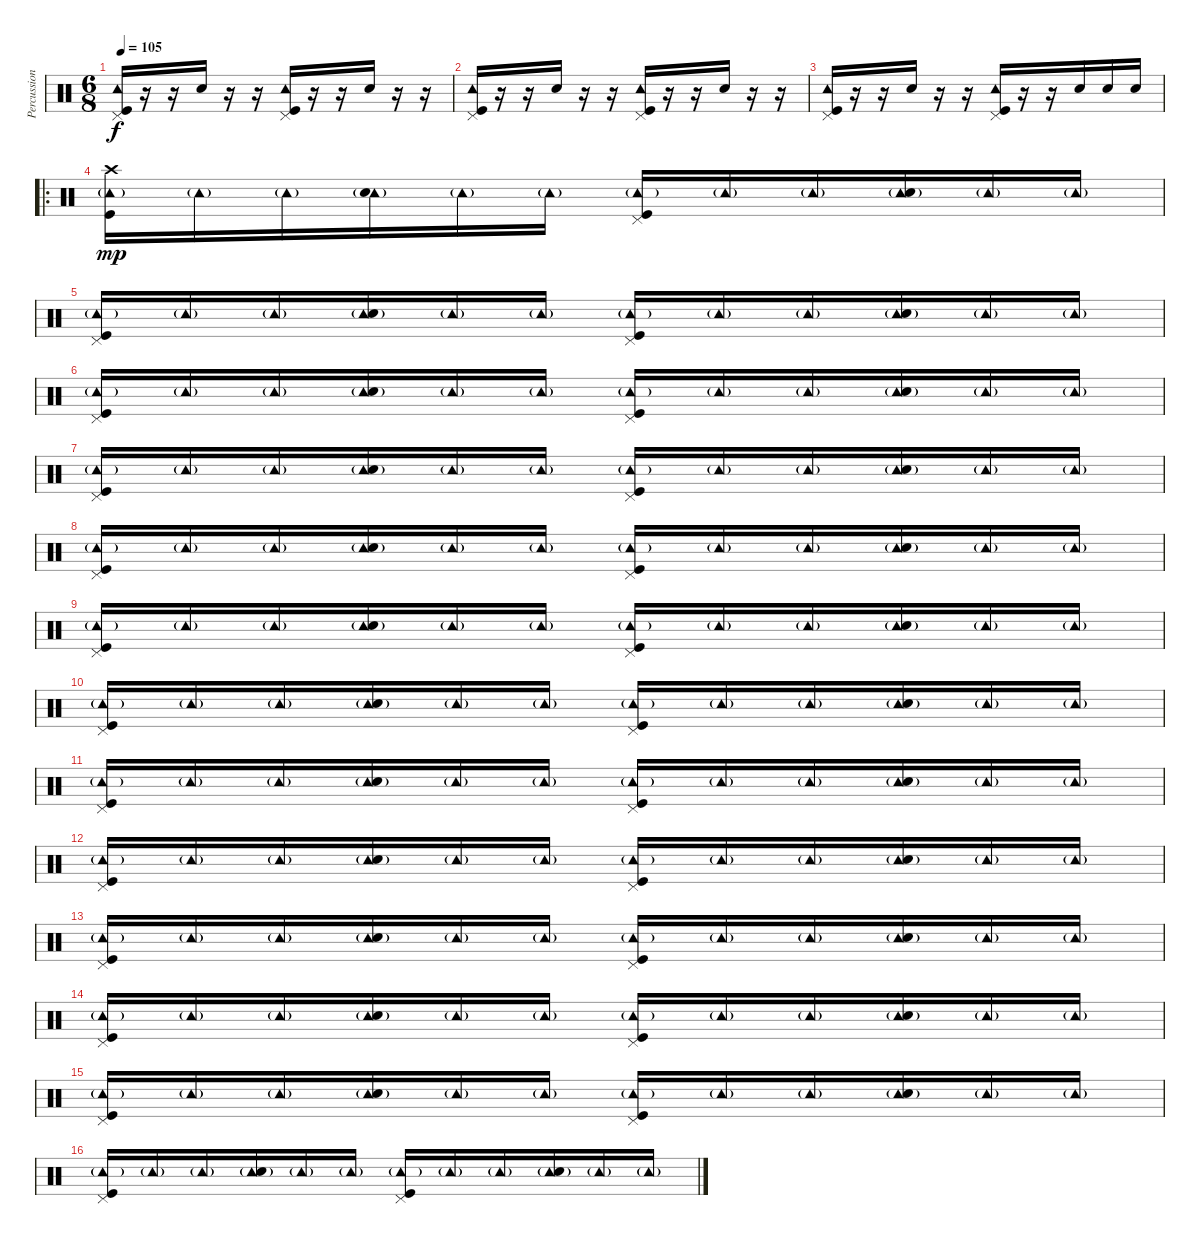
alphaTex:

\track ("Percussions" "Percussion") {instrument percussion}
\staff {score}
\articulation defaults
\ts (6 8)
\tempo 105
\clef neutral
\ks c
("Pedal Hi-Hat (hit)" "Tambourine (hit)" "Kick (hit)").16{dy f} r.16 r.16 "Snare (hit) 2".16 r.16 r.16 ("Pedal Hi-Hat (hit)" "Tambourine (hit)" "Kick (hit)").16 r.16 r.16 "Snare (hit) 2".16 r.16 r.16 |
("Pedal Hi-Hat (hit)" "Tambourine (hit)" "Kick (hit)").16 r.16 r.16 "Snare (hit) 2".16 r.16 r.16 ("Pedal Hi-Hat (hit)" "Tambourine (hit)" "Kick (hit)").16 r.16 r.16 "Snare (hit) 2".16 r.16 r.16 |
("Pedal Hi-Hat (hit)" "Tambourine (hit)" "Kick (hit)").16 r.16 r.16 "Snare (hit) 2".16 r.16 r.16 ("Pedal Hi-Hat (hit)" "Tambourine (hit)" "Kick (hit)").16 r.16 r.16 "Snare (hit) 2".16 "Snare (hit) 2".16 "Snare (hit) 2".16 |
\ro
("Crash high (hit)" "Tambourine (hit)"{g} "Kick (hit)").16{dy mp} "Tambourine (hit)"{g}.16 "Tambourine (hit)"{g}.16 ("Tambourine (hit)"{g} "Snare (hit) 2").16 "Tambourine (hit)"{g}.16 "Tambourine (hit)"{g}.16 ("Pedal Hi-Hat (hit)" "Tambourine (hit)"{g} "Kick (hit)").16 "Tambourine (hit)"{g}.16 "Tambourine (hit)"{g}.16 ("Tambourine (hit)"{g} "Snare (hit) 2").16 "Tambourine (hit)"{g}.16 "Tambourine (hit)"{g}.16 |
("Pedal Hi-Hat (hit)" "Tambourine (hit)"{g} "Kick (hit)").16 "Tambourine (hit)"{g}.16 "Tambourine (hit)"{g}.16 ("Tambourine (hit)"{g} "Snare (hit) 2").16 "Tambourine (hit)"{g}.16 "Tambourine (hit)"{g}.16 ("Pedal Hi-Hat (hit)" "Tambourine (hit)"{g} "Kick (hit)").16 "Tambourine (hit)"{g}.16 "Tambourine (hit)"{g}.16 ("Tambourine (hit)"{g} "Snare (hit) 2").16 "Tambourine (hit)"{g}.16 "Tambourine (hit)"{g}.16 |
("Pedal Hi-Hat (hit)" "Tambourine (hit)"{g} "Kick (hit)").16 "Tambourine (hit)"{g}.16 "Tambourine (hit)"{g}.16 ("Tambourine (hit)"{g} "Snare (hit) 2").16 "Tambourine (hit)"{g}.16 "Tambourine (hit)"{g}.16 ("Pedal Hi-Hat (hit)" "Tambourine (hit)"{g} "Kick (hit)").16 "Tambourine (hit)"{g}.16 "Tambourine (hit)"{g}.16 ("Tambourine (hit)"{g} "Snare (hit) 2").16 "Tambourine (hit)"{g}.16 "Tambourine (hit)"{g}.16 |
("Pedal Hi-Hat (hit)" "Tambourine (hit)"{g} "Kick (hit)").16 "Tambourine (hit)"{g}.16 "Tambourine (hit)"{g}.16 ("Tambourine (hit)"{g} "Snare (hit) 2").16 "Tambourine (hit)"{g}.16 "Tambourine (hit)"{g}.16 ("Pedal Hi-Hat (hit)" "Tambourine (hit)"{g} "Kick (hit)").16 "Tambourine (hit)"{g}.16 "Tambourine (hit)"{g}.16 ("Tambourine (hit)"{g} "Snare (hit) 2").16 "Tambourine (hit)"{g}.16 "Tambourine (hit)"{g}.16 |
("Pedal Hi-Hat (hit)" "Tambourine (hit)"{g} "Kick (hit)").16 "Tambourine (hit)"{g}.16 "Tambourine (hit)"{g}.16 ("Tambourine (hit)"{g} "Snare (hit) 2").16 "Tambourine (hit)"{g}.16 "Tambourine (hit)"{g}.16 ("Pedal Hi-Hat (hit)" "Tambourine (hit)"{g} "Kick (hit)").16 "Tambourine (hit)"{g}.16 "Tambourine (hit)"{g}.16 ("Tambourine (hit)"{g} "Snare (hit) 2").16 "Tambourine (hit)"{g}.16 "Tambourine (hit)"{g}.16 |
("Pedal Hi-Hat (hit)" "Tambourine (hit)"{g} "Kick (hit)").16 "Tambourine (hit)"{g}.16 "Tambourine (hit)"{g}.16 ("Tambourine (hit)"{g} "Snare (hit) 2").16 "Tambourine (hit)"{g}.16 "Tambourine (hit)"{g}.16 ("Pedal Hi-Hat (hit)" "Tambourine (hit)"{g} "Kick (hit)").16 "Tambourine (hit)"{g}.16 "Tambourine (hit)"{g}.16 ("Tambourine (hit)"{g} "Snare (hit) 2").16 "Tambourine (hit)"{g}.16 "Tambourine (hit)"{g}.16 |
("Pedal Hi-Hat (hit)" "Tambourine (hit)"{g} "Kick (hit)").16 "Tambourine (hit)"{g}.16 "Tambourine (hit)"{g}.16 ("Tambourine (hit)"{g} "Snare (hit) 2").16 "Tambourine (hit)"{g}.16 "Tambourine (hit)"{g}.16 ("Pedal Hi-Hat (hit)" "Tambourine (hit)"{g} "Kick (hit)").16 "Tambourine (hit)"{g}.16 "Tambourine (hit)"{g}.16 ("Tambourine (hit)"{g} "Snare (hit) 2").16 "Tambourine (hit)"{g}.16 "Tambourine (hit)"{g}.16 |
("Pedal Hi-Hat (hit)" "Tambourine (hit)"{g} "Kick (hit)").16 "Tambourine (hit)"{g}.16 "Tambourine (hit)"{g}.16 ("Tambourine (hit)"{g} "Snare (hit) 2").16 "Tambourine (hit)"{g}.16 "Tambourine (hit)"{g}.16 ("Pedal Hi-Hat (hit)" "Tambourine (hit)"{g} "Kick (hit)").16 "Tambourine (hit)"{g}.16 "Tambourine (hit)"{g}.16 ("Tambourine (hit)"{g} "Snare (hit) 2").16 "Tambourine (hit)"{g}.16 "Tambourine (hit)"{g}.16 |
("Pedal Hi-Hat (hit)" "Tambourine (hit)"{g} "Kick (hit)").16 "Tambourine (hit)"{g}.16 "Tambourine (hit)"{g}.16 ("Tambourine (hit)"{g} "Snare (hit) 2").16 "Tambourine (hit)"{g}.16 "Tambourine (hit)"{g}.16 ("Pedal Hi-Hat (hit)" "Tambourine (hit)"{g} "Kick (hit)").16 "Tambourine (hit)"{g}.16 "Tambourine (hit)"{g}.16 ("Tambourine (hit)"{g} "Snare (hit) 2").16 "Tambourine (hit)"{g}.16 "Tambourine (hit)"{g}.16 |
("Pedal Hi-Hat (hit)" "Tambourine (hit)"{g} "Kick (hit)").16 "Tambourine (hit)"{g}.16 "Tambourine (hit)"{g}.16 ("Tambourine (hit)"{g} "Snare (hit) 2").16 "Tambourine (hit)"{g}.16 "Tambourine (hit)"{g}.16 ("Pedal Hi-Hat (hit)" "Tambourine (hit)"{g} "Kick (hit)").16 "Tambourine (hit)"{g}.16 "Tambourine (hit)"{g}.16 ("Tambourine (hit)"{g} "Snare (hit) 2").16 "Tambourine (hit)"{g}.16 "Tambourine (hit)"{g}.16 |
("Pedal Hi-Hat (hit)" "Tambourine (hit)"{g} "Kick (hit)").16 "Tambourine (hit)"{g}.16 "Tambourine (hit)"{g}.16 ("Tambourine (hit)"{g} "Snare (hit) 2").16 "Tambourine (hit)"{g}.16 "Tambourine (hit)"{g}.16 ("Pedal Hi-Hat (hit)" "Tambourine (hit)"{g} "Kick (hit)").16 "Tambourine (hit)"{g}.16 "Tambourine (hit)"{g}.16 ("Tambourine (hit)"{g} "Snare (hit) 2").16 "Tambourine (hit)"{g}.16 "Tambourine (hit)"{g}.16 |
("Pedal Hi-Hat (hit)" "Tambourine (hit)"{g} "Kick (hit)").16 "Tambourine (hit)"{g}.16 "Tambourine (hit)"{g}.16 ("Tambourine (hit)"{g} "Snare (hit) 2").16 "Tambourine (hit)"{g}.16 "Tambourine (hit)"{g}.16 ("Pedal Hi-Hat (hit)" "Tambourine (hit)"{g} "Kick (hit)").16 "Tambourine (hit)"{g}.16 "Tambourine (hit)"{g}.16 ("Tambourine (hit)"{g} "Snare (hit) 2").16 "Tambourine (hit)"{g}.16 "Tambourine (hit)"{g}.16 |
("Pedal Hi-Hat (hit)" "Tambourine (hit)"{g} "Kick (hit)").16 "Tambourine (hit)"{g}.16 "Tambourine (hit)"{g}.16 ("Tambourine (hit)"{g} "Snare (hit) 2").16 "Tambourine (hit)"{g}.16 "Tambourine (hit)"{g}.16 ("Pedal Hi-Hat (hit)" "Tambourine (hit)"{g} "Kick (hit)").16 "Tambourine (hit)"{g}.16 "Tambourine (hit)"{g}.16 ("Tambourine (hit)"{g} "Snare (hit) 2").16 "Tambourine (hit)"{g}.16 "Tambourine (hit)"{g}.16
